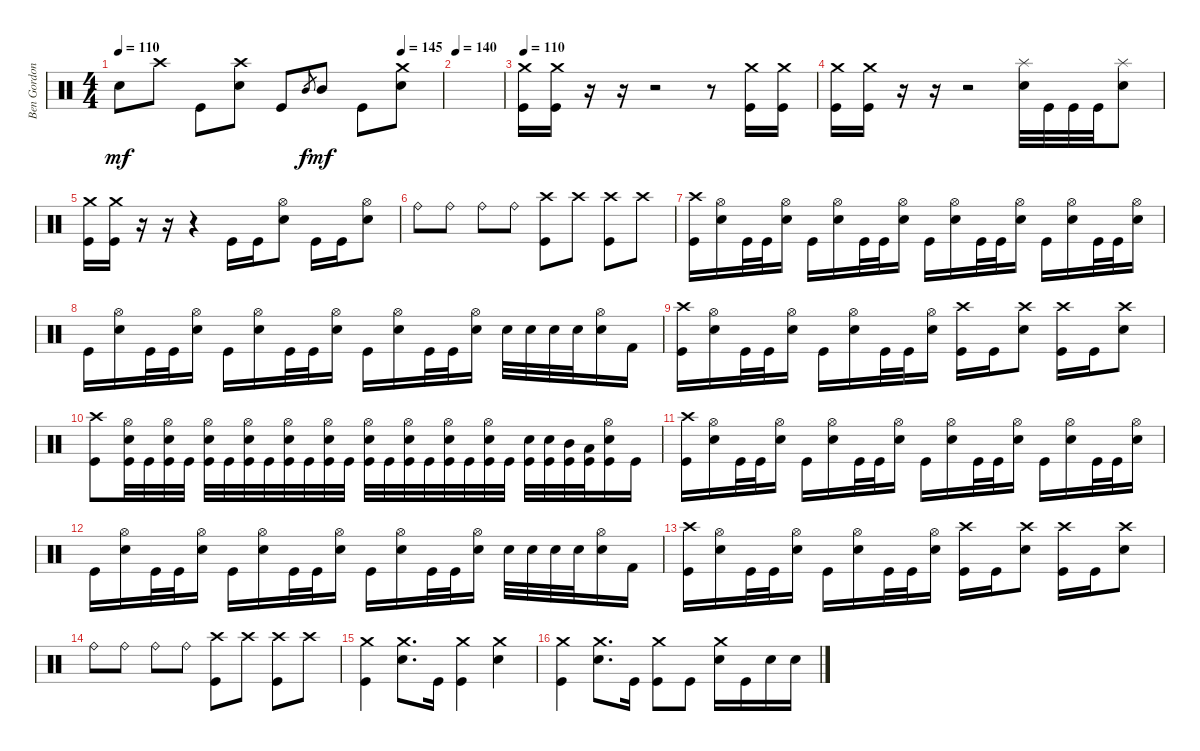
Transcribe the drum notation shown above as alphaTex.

\track ("Ben Gordon" "Ben Gordon") {instrument percussion}
\staff {score}
\articulation defaults
\ts (4 4)
\tempo (145 0.875)
\tempo 110
\clef neutral
\ks c "Snare (hit) 2".8{dy mf} "Crash high (hit)".8 "Kick (hit)".8
("Crash high (hit)" "Snare (hit) 2").8 "Kick (hit)".8 "Mid Tom (hit)".8{gr dy f} "Mid Tom (hit)".8{dy mf} "Kick (hit)".8 ("Crash medium (hit)" "Snare (hit) 2").8 |
\tempo 140
|
\tempo 110
("Crash medium (hit)" "Kick (hit)").16 ("Crash medium (hit)" "Kick (hit)").16 r.16 r.16 r.2 r.8 ("Crash medium (hit)" "Kick (hit)").16 ("Crash medium (hit)" "Kick (hit)").16 |
("Crash medium (hit)" "Kick (hit)").16 ("Crash medium (hit)" "Kick (hit)").16 r.16 r.16 r.2 ("Splash (hit)" "Snare (hit) 2").32 "Kick (hit)".32 "Kick (hit)".32 "Kick (hit)".32 ("Splash (hit)" "Snare (hit) 2").8 |
("Crash medium (hit)" "Kick (hit)").16 ("Crash medium (hit)" "Kick (hit)").16 r.16 r.16 r.4 "Kick (hit)".16 "Kick (hit)".16 ("Hi-Hat (open)" "Snare (hit) 2").8 "Kick (hit)".16 "Kick (hit)".16 ("Hi-Hat (open)" "Snare (hit) 2").8 |
"Ride (bell)".8 "Ride (bell)".8 "Ride (bell)".8 "Ride (bell)".8 ("Crash high (hit)" "Kick (hit)").8 "Crash high (hit)".8 ("Crash high (hit)" "Kick (hit)").8 "Crash high (hit)".8 |
("Crash high (hit)" "Kick (hit)").16 ("Hi-Hat (open)" "Snare (hit) 2").16 "Kick (hit)".32 "Kick (hit)".32 ("Hi-Hat (open)" "Snare (hit) 2").16 "Kick (hit)".16 ("Hi-Hat (open)" "Snare (hit) 2").16 "Kick (hit)".32 "Kick (hit)".32 ("Hi-Hat (open)" "Snare (hit) 2").16 "Kick (hit)".16 ("Hi-Hat (open)" "Snare (hit) 2").16 "Kick (hit)".32 "Kick (hit)".32 ("Hi-Hat (open)" "Snare (hit) 2").16 "Kick (hit)".16 ("Hi-Hat (open)" "Snare (hit) 2").16 "Kick (hit)".32 "Kick (hit)".32 ("Hi-Hat (open)" "Snare (hit) 2").16 |
"Kick (hit)".16 ("Hi-Hat (open)" "Snare (hit) 2").16 "Kick (hit)".32 "Kick (hit)".32 ("Hi-Hat (open)" "Snare (hit) 2").16 "Kick (hit)".16 ("Hi-Hat (open)" "Snare (hit) 2").16 "Kick (hit)".32 "Kick (hit)".32 ("Hi-Hat (open)" "Snare (hit) 2").16 "Kick (hit)".16 ("Hi-Hat (open)" "Snare (hit) 2").16 "Kick (hit)".32 "Kick (hit)".32 ("Hi-Hat (open)" "Snare (hit) 2").16 "Snare (hit) 2".32 "Snare (hit) 2".32 "Snare (hit) 2".32 "Snare (hit) 2".32 ("Hi-Hat (open)" "Snare (hit) 2").16 "Kick (hit) 2".16 |
("Crash high (hit)" "Kick (hit)").16 ("Hi-Hat (open)" "Snare (hit) 2").16 "Kick (hit)".32 "Kick (hit)".32 ("Hi-Hat (open)" "Snare (hit) 2").16 "Kick (hit)".16 ("Hi-Hat (open)" "Snare (hit) 2").16 "Kick (hit)".32 "Kick (hit)".32 ("Hi-Hat (open)" "Snare (hit) 2").16 ("Crash high (hit)" "Kick (hit)").16 "Kick (hit)".16 ("Crash high (hit)" "Snare (hit) 2").8 ("Crash high (hit)" "Kick (hit)").16 "Kick (hit)".16 ("Crash high (hit)" "Snare (hit) 2").8 |
("Crash high (hit)" "Kick (hit)").8 ("Hi-Hat (open)" "Snare (hit) 2" "Kick (hit)").32 "Kick (hit)".32 ("Hi-Hat (open)" "Snare (hit) 2" "Kick (hit)").32 "Kick (hit)".32 ("Hi-Hat (open)" "Snare (hit) 2" "Kick (hit)").32 "Kick (hit)".32 ("Hi-Hat (open)" "Snare (hit) 2" "Kick (hit)").32 "Kick (hit)".32 ("Hi-Hat (open)" "Snare (hit) 2" "Kick (hit)").32 "Kick (hit)".32 ("Hi-Hat (open)" "Snare (hit) 2" "Kick (hit)").32 "Kick (hit)".32 ("Hi-Hat (open)" "Snare (hit) 2" "Kick (hit)").32 "Kick (hit)".32 ("Hi-Hat (open)" "Snare (hit) 2" "Kick (hit)").32 "Kick (hit)".32 ("Hi-Hat (open)" "Snare (hit) 2" "Kick (hit)").32 "Kick (hit)".32 ("Hi-Hat (open)" "Snare (hit) 2" "Kick (hit)").32 "Kick (hit)".32 ("Snare (hit) 2" "Kick (hit)").32 ("Snare (hit) 2" "Kick (hit)").32 ("Mid Tom (hit)" "Kick (hit)").32 ("Low Tom (hit)" "Kick (hit)").32 ("Hi-Hat (open)" "Snare (hit) 2" "Kick (hit)").16 "Kick (hit)".16 |
("Crash high (hit)" "Kick (hit)").16 ("Hi-Hat (open)" "Snare (hit) 2").16 "Kick (hit)".32 "Kick (hit)".32 ("Hi-Hat (open)" "Snare (hit) 2").16 "Kick (hit)".16 ("Hi-Hat (open)" "Snare (hit) 2").16 "Kick (hit)".32 "Kick (hit)".32 ("Hi-Hat (open)" "Snare (hit) 2").16 "Kick (hit)".16 ("Hi-Hat (open)" "Snare (hit) 2").16 "Kick (hit)".32 "Kick (hit)".32 ("Hi-Hat (open)" "Snare (hit) 2").16 "Kick (hit)".16 ("Hi-Hat (open)" "Snare (hit) 2").16 "Kick (hit)".32 "Kick (hit)".32 ("Hi-Hat (open)" "Snare (hit) 2").16 |
"Kick (hit)".16 ("Hi-Hat (open)" "Snare (hit) 2").16 "Kick (hit)".32 "Kick (hit)".32 ("Hi-Hat (open)" "Snare (hit) 2").16 "Kick (hit)".16 ("Hi-Hat (open)" "Snare (hit) 2").16 "Kick (hit)".32 "Kick (hit)".32 ("Hi-Hat (open)" "Snare (hit) 2").16 "Kick (hit)".16 ("Hi-Hat (open)" "Snare (hit) 2").16 "Kick (hit)".32 "Kick (hit)".32 ("Hi-Hat (open)" "Snare (hit) 2").16 "Snare (hit) 2".32 "Snare (hit) 2".32 "Snare (hit) 2".32 "Snare (hit) 2".32 ("Hi-Hat (open)" "Snare (hit) 2").16 "Kick (hit) 2".16 |
("Crash high (hit)" "Kick (hit)").16 ("Hi-Hat (open)" "Snare (hit) 2").16 "Kick (hit)".32 "Kick (hit)".32 ("Hi-Hat (open)" "Snare (hit) 2").16 "Kick (hit)".16 ("Hi-Hat (open)" "Snare (hit) 2").16 "Kick (hit)".32 "Kick (hit)".32 ("Hi-Hat (open)" "Snare (hit) 2").16 ("Crash high (hit)" "Kick (hit)").16 "Kick (hit)".16 ("Crash high (hit)" "Snare (hit) 2").8 ("Crash high (hit)" "Kick (hit)").16 "Kick (hit)".16 ("Crash high (hit)" "Snare (hit) 2").8 |
"Ride (bell)".8 "Ride (bell)".8 "Ride (bell)".8 "Ride (bell)".8 ("Crash high (hit)" "Kick (hit)").8 "Crash high (hit)".8 ("Crash high (hit)" "Kick (hit)").8 "Crash high (hit)".8 |
("Crash medium (hit)" "Kick (hit)").4 ("Crash medium (hit)" "Snare (hit) 2").8{d} "Kick (hit)".16 ("Crash medium (hit)" "Kick (hit)").4 ("Crash medium (hit)" "Snare (hit) 2").4 |
("Crash medium (hit)" "Kick (hit)").4 ("Crash medium (hit)" "Snare (hit) 2").8{d} "Kick (hit)".16 ("Crash medium (hit)" "Kick (hit)").8 "Kick (hit)".8 ("Crash medium (hit)" "Snare (hit) 2").16 "Kick (hit)".16 "Snare (hit) 2".16 "Snare (hit) 2".16
